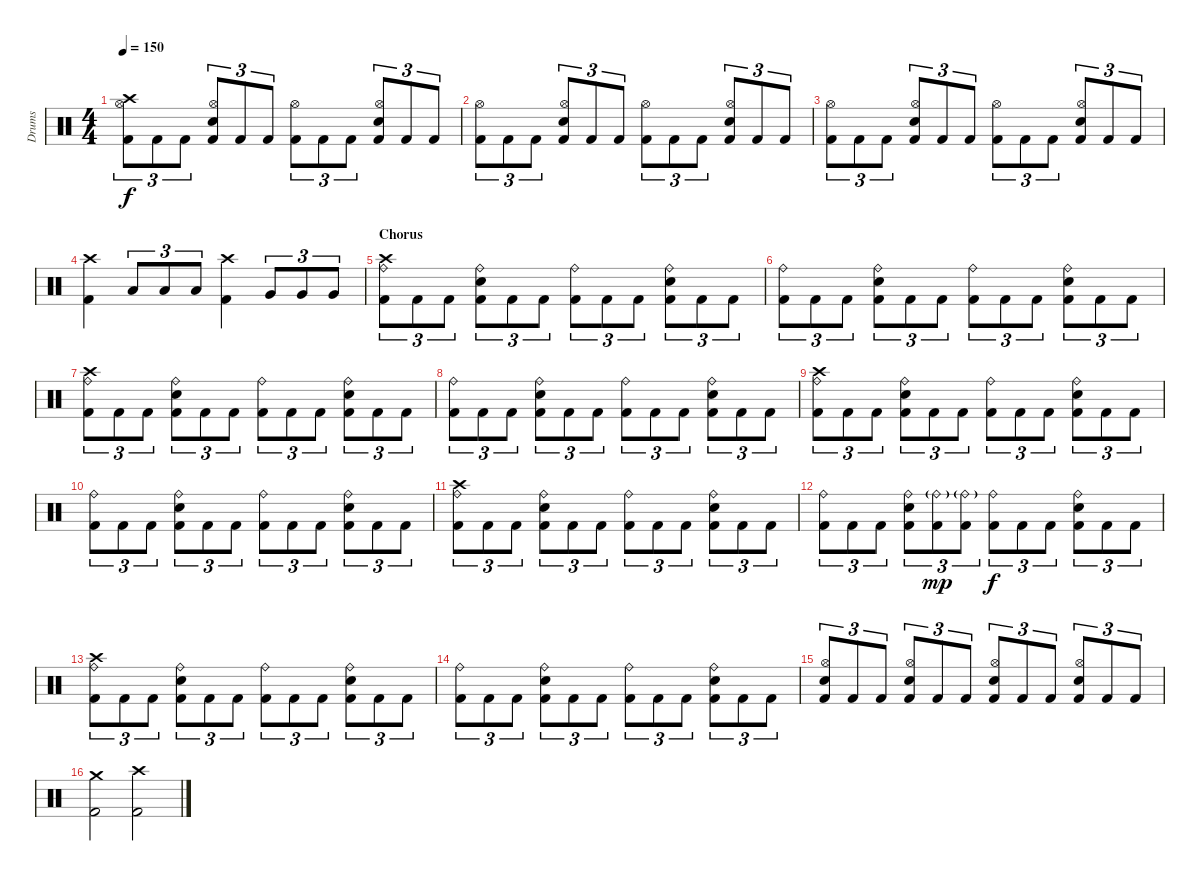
\track ("Drums" "Drums") {instrument percussion}
\staff {score}
\articulation defaults
\ts (4 4)
\tempo 150
\clef neutral
\ks c
("Kick (hit) 2" "Crash high (hit)" "Hi-Hat (open)").8{tu (3 2) dy f} "Kick (hit) 2".8{tu (3 2)} "Kick (hit) 2".8{tu (3 2)} ("Kick (hit) 2" "Electric Snare (hit)" "Hi-Hat (open)").8{tu (3 2)} "Kick (hit) 2".8{tu (3 2)} "Kick (hit) 2".8{tu (3 2)} ("Kick (hit) 2" "Hi-Hat (open)").8{tu (3 2)} "Kick (hit) 2".8{tu (3 2)} "Kick (hit) 2".8{tu (3 2)} ("Kick (hit) 2" "Electric Snare (hit)" "Hi-Hat (open)").8{tu (3 2)} "Kick (hit) 2".8{tu (3 2)} "Kick (hit) 2".8{tu (3 2)} |
("Kick (hit) 2" "Hi-Hat (open)").8{tu (3 2)} "Kick (hit) 2".8{tu (3 2)} "Kick (hit) 2".8{tu (3 2)} ("Kick (hit) 2" "Electric Snare (hit)" "Hi-Hat (open)").8{tu (3 2)} "Kick (hit) 2".8{tu (3 2)} "Kick (hit) 2".8{tu (3 2)} ("Kick (hit) 2" "Hi-Hat (open)").8{tu (3 2)} "Kick (hit) 2".8{tu (3 2)} "Kick (hit) 2".8{tu (3 2)} ("Kick (hit) 2" "Electric Snare (hit)" "Hi-Hat (open)").8{tu (3 2)} "Kick (hit) 2".8{tu (3 2)} "Kick (hit) 2".8{tu (3 2)} |
("Kick (hit) 2" "Hi-Hat (open)").8{tu (3 2)} "Kick (hit) 2".8{tu (3 2)} "Kick (hit) 2".8{tu (3 2)} ("Kick (hit) 2" "Electric Snare (hit)" "Hi-Hat (open)").8{tu (3 2)} "Kick (hit) 2".8{tu (3 2)} "Kick (hit) 2".8{tu (3 2)} ("Kick (hit) 2" "Hi-Hat (open)").8{tu (3 2)} "Kick (hit) 2".8{tu (3 2)} "Kick (hit) 2".8{tu (3 2)} ("Kick (hit) 2" "Electric Snare (hit)" "Hi-Hat (open)").8{tu (3 2)} "Kick (hit) 2".8{tu (3 2)} "Kick (hit) 2".8{tu (3 2)} |
("Kick (hit) 2" "Crash high (hit)").4 "Low Tom (hit)".8{tu (3 2)} "Low Tom (hit)".8{tu (3 2)} "Low Tom (hit)".8{tu (3 2)} ("Kick (hit) 2" "Crash high (hit)").4 "Very Low Tom (hit)".8{tu (3 2)} "Very Low Tom (hit)".8{tu (3 2)} "Very Low Tom (hit)".8{tu (3 2)} |
\section ("" "Chorus")
("Kick (hit) 2" "Crash high (hit)" "Ride (bell)").8{tu (3 2)} "Kick (hit) 2".8{tu (3 2)} "Kick (hit) 2".8{tu (3 2)} ("Kick (hit) 2" "Electric Snare (hit)" "Ride (bell)").8{tu (3 2)} "Kick (hit) 2".8{tu (3 2)} "Kick (hit) 2".8{tu (3 2)} ("Kick (hit) 2" "Ride (bell)").8{tu (3 2)} "Kick (hit) 2".8{tu (3 2)} "Kick (hit) 2".8{tu (3 2)} ("Kick (hit) 2" "Electric Snare (hit)" "Ride (bell)").8{tu (3 2)} "Kick (hit) 2".8{tu (3 2)} "Kick (hit) 2".8{tu (3 2)} |
("Kick (hit) 2" "Ride (bell)").8{tu (3 2)} "Kick (hit) 2".8{tu (3 2)} "Kick (hit) 2".8{tu (3 2)} ("Kick (hit) 2" "Electric Snare (hit)" "Ride (bell)").8{tu (3 2)} "Kick (hit) 2".8{tu (3 2)} "Kick (hit) 2".8{tu (3 2)} ("Kick (hit) 2" "Ride (bell)").8{tu (3 2)} "Kick (hit) 2".8{tu (3 2)} "Kick (hit) 2".8{tu (3 2)} ("Kick (hit) 2" "Electric Snare (hit)" "Ride (bell)").8{tu (3 2)} "Kick (hit) 2".8{tu (3 2)} "Kick (hit) 2".8{tu (3 2)} |
("Kick (hit) 2" "Crash high (hit)" "Ride (bell)").8{tu (3 2)} "Kick (hit) 2".8{tu (3 2)} "Kick (hit) 2".8{tu (3 2)} ("Kick (hit) 2" "Electric Snare (hit)" "Ride (bell)").8{tu (3 2)} "Kick (hit) 2".8{tu (3 2)} "Kick (hit) 2".8{tu (3 2)} ("Kick (hit) 2" "Ride (bell)").8{tu (3 2)} "Kick (hit) 2".8{tu (3 2)} "Kick (hit) 2".8{tu (3 2)} ("Kick (hit) 2" "Electric Snare (hit)" "Ride (bell)").8{tu (3 2)} "Kick (hit) 2".8{tu (3 2)} "Kick (hit) 2".8{tu (3 2)} |
("Kick (hit) 2" "Ride (bell)").8{tu (3 2)} "Kick (hit) 2".8{tu (3 2)} "Kick (hit) 2".8{tu (3 2)} ("Kick (hit) 2" "Electric Snare (hit)" "Ride (bell)").8{tu (3 2)} "Kick (hit) 2".8{tu (3 2)} "Kick (hit) 2".8{tu (3 2)} ("Kick (hit) 2" "Ride (bell)").8{tu (3 2)} "Kick (hit) 2".8{tu (3 2)} "Kick (hit) 2".8{tu (3 2)} ("Kick (hit) 2" "Electric Snare (hit)" "Ride (bell)").8{tu (3 2)} "Kick (hit) 2".8{tu (3 2)} "Kick (hit) 2".8{tu (3 2)} |
("Kick (hit) 2" "Crash high (hit)" "Ride (bell)").8{tu (3 2)} "Kick (hit) 2".8{tu (3 2)} "Kick (hit) 2".8{tu (3 2)} ("Kick (hit) 2" "Electric Snare (hit)" "Ride (bell)").8{tu (3 2)} "Kick (hit) 2".8{tu (3 2)} "Kick (hit) 2".8{tu (3 2)} ("Kick (hit) 2" "Ride (bell)").8{tu (3 2)} "Kick (hit) 2".8{tu (3 2)} "Kick (hit) 2".8{tu (3 2)} ("Kick (hit) 2" "Electric Snare (hit)" "Ride (bell)").8{tu (3 2)} "Kick (hit) 2".8{tu (3 2)} "Kick (hit) 2".8{tu (3 2)} |
("Kick (hit) 2" "Ride (bell)").8{tu (3 2)} "Kick (hit) 2".8{tu (3 2)} "Kick (hit) 2".8{tu (3 2)} ("Kick (hit) 2" "Electric Snare (hit)" "Ride (bell)").8{tu (3 2)} "Kick (hit) 2".8{tu (3 2)} "Kick (hit) 2".8{tu (3 2)} ("Kick (hit) 2" "Ride (bell)").8{tu (3 2)} "Kick (hit) 2".8{tu (3 2)} "Kick (hit) 2".8{tu (3 2)} ("Kick (hit) 2" "Electric Snare (hit)" "Ride (bell)").8{tu (3 2)} "Kick (hit) 2".8{tu (3 2)} "Kick (hit) 2".8{tu (3 2)} |
("Kick (hit) 2" "Crash high (hit)" "Ride (bell)").8{tu (3 2)} "Kick (hit) 2".8{tu (3 2)} "Kick (hit) 2".8{tu (3 2)} ("Kick (hit) 2" "Electric Snare (hit)" "Ride (bell)").8{tu (3 2)} "Kick (hit) 2".8{tu (3 2)} "Kick (hit) 2".8{tu (3 2)} ("Kick (hit) 2" "Ride (bell)").8{tu (3 2)} "Kick (hit) 2".8{tu (3 2)} "Kick (hit) 2".8{tu (3 2)} ("Kick (hit) 2" "Electric Snare (hit)" "Ride (bell)").8{tu (3 2)} "Kick (hit) 2".8{tu (3 2)} "Kick (hit) 2".8{tu (3 2)} |
("Kick (hit) 2" "Ride (bell)").8{tu (3 2)} "Kick (hit) 2".8{tu (3 2)} "Kick (hit) 2".8{tu (3 2)} ("Kick (hit) 2" "Electric Snare (hit)" "Ride (bell)").8{tu (3 2)} ("Kick (hit) 2" "Ride (bell)"{g}).8{tu (3 2) dy mp} ("Kick (hit) 2" "Ride (bell)"{g}).8{tu (3 2)} ("Kick (hit) 2" "Ride (bell)").8{tu (3 2) dy f} "Kick (hit) 2".8{tu (3 2)} "Kick (hit) 2".8{tu (3 2)} ("Kick (hit) 2" "Electric Snare (hit)" "Ride (bell)").8{tu (3 2)} "Kick (hit) 2".8{tu (3 2)} "Kick (hit) 2".8{tu (3 2)} |
("Kick (hit) 2" "Crash high (hit)" "Ride (bell)").8{tu (3 2)} "Kick (hit) 2".8{tu (3 2)} "Kick (hit) 2".8{tu (3 2)} ("Kick (hit) 2" "Electric Snare (hit)" "Ride (bell)").8{tu (3 2)} "Kick (hit) 2".8{tu (3 2)} "Kick (hit) 2".8{tu (3 2)} ("Kick (hit) 2" "Ride (bell)").8{tu (3 2)} "Kick (hit) 2".8{tu (3 2)} "Kick (hit) 2".8{tu (3 2)} ("Kick (hit) 2" "Electric Snare (hit)" "Ride (bell)").8{tu (3 2)} "Kick (hit) 2".8{tu (3 2)} "Kick (hit) 2".8{tu (3 2)} |
("Kick (hit) 2" "Ride (bell)").8{tu (3 2)} "Kick (hit) 2".8{tu (3 2)} "Kick (hit) 2".8{tu (3 2)} ("Kick (hit) 2" "Electric Snare (hit)" "Ride (bell)").8{tu (3 2)} "Kick (hit) 2".8{tu (3 2)} "Kick (hit) 2".8{tu (3 2)} ("Kick (hit) 2" "Ride (bell)").8{tu (3 2)} "Kick (hit) 2".8{tu (3 2)} "Kick (hit) 2".8{tu (3 2)} ("Kick (hit) 2" "Electric Snare (hit)" "Ride (bell)").8{tu (3 2)} "Kick (hit) 2".8{tu (3 2)} "Kick (hit) 2".8{tu (3 2)} |
("Kick (hit) 2" "Electric Snare (hit)" "Hi-Hat (open)").8{tu (3 2)} "Kick (hit) 2".8{tu (3 2)} "Kick (hit) 2".8{tu (3 2)} ("Kick (hit) 2" "Electric Snare (hit)" "Hi-Hat (open)").8{tu (3 2)} "Kick (hit) 2".8{tu (3 2)} "Kick (hit) 2".8{tu (3 2)} ("Kick (hit) 2" "Electric Snare (hit)" "Hi-Hat (open)").8{tu (3 2)} "Kick (hit) 2".8{tu (3 2)} "Kick (hit) 2".8{tu (3 2)} ("Kick (hit) 2" "Electric Snare (hit)" "Hi-Hat (open)").8{tu (3 2)} "Kick (hit) 2".8{tu (3 2)} "Kick (hit) 2".8{tu (3 2)} |
("Kick (hit) 2" "Crash medium (hit)").2 ("Kick (hit) 2" "Crash high (hit)").2
